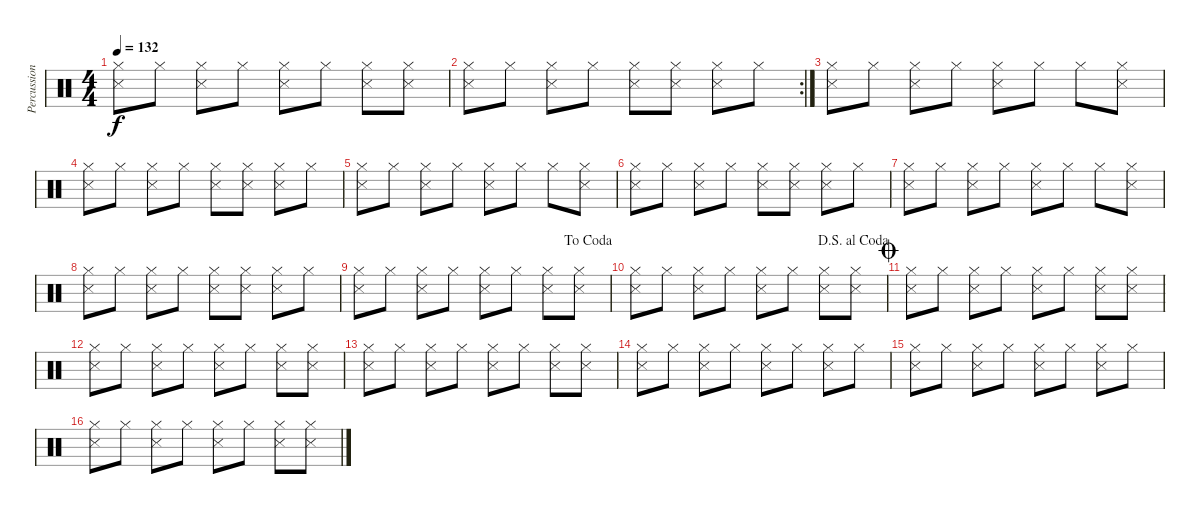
\track ("Percussion" "Percussion") {instrument percussion}
\staff {score}
\articulation defaults
\ts (4 4)
\tempo 132
\clef neutral
\ks c
("Hi-Hat (closed)" "Snare (side stick) 3").8{dy f} "Hi-Hat (closed)".8 ("Hi-Hat (closed)" "Snare (side stick) 3").8 "Hi-Hat (closed)".8 ("Hi-Hat (closed)" "Snare (side stick) 3").8 "Hi-Hat (closed)".8 ("Hi-Hat (closed)" "Snare (side stick) 3").8 ("Hi-Hat (closed)" "Snare (side stick) 3").8 |
\rc 2
("Hi-Hat (closed)" "Snare (side stick) 3").8 "Hi-Hat (closed)".8 ("Hi-Hat (closed)" "Snare (side stick) 3").8 "Hi-Hat (closed)".8 ("Hi-Hat (closed)" "Snare (side stick) 3").8 ("Hi-Hat (closed)" "Snare (side stick) 3").8 ("Hi-Hat (closed)" "Snare (side stick) 3").8 "Hi-Hat (closed)".8 |
("Hi-Hat (closed)" "Snare (side stick) 3").8 "Hi-Hat (closed)".8 ("Hi-Hat (closed)" "Snare (side stick) 3").8 "Hi-Hat (closed)".8 ("Hi-Hat (closed)" "Snare (side stick) 3").8 "Hi-Hat (closed)".8 "Hi-Hat (closed)".8 ("Hi-Hat (closed)" "Snare (side stick) 3").8 |
("Hi-Hat (closed)" "Snare (side stick) 3").8 "Hi-Hat (closed)".8 ("Hi-Hat (closed)" "Snare (side stick) 3").8 "Hi-Hat (closed)".8 ("Hi-Hat (closed)" "Snare (side stick) 3").8 ("Hi-Hat (closed)" "Snare (side stick) 3").8 ("Hi-Hat (closed)" "Snare (side stick) 3").8 "Hi-Hat (closed)".8 |
("Hi-Hat (closed)" "Snare (side stick) 3").8 "Hi-Hat (closed)".8 ("Hi-Hat (closed)" "Snare (side stick) 3").8 "Hi-Hat (closed)".8 ("Hi-Hat (closed)" "Snare (side stick) 3").8 "Hi-Hat (closed)".8 "Hi-Hat (closed)".8 ("Hi-Hat (closed)" "Snare (side stick) 3").8 |
("Hi-Hat (closed)" "Snare (side stick) 3").8 "Hi-Hat (closed)".8 ("Hi-Hat (closed)" "Snare (side stick) 3").8 "Hi-Hat (closed)".8 ("Hi-Hat (closed)" "Snare (side stick) 3").8 ("Hi-Hat (closed)" "Snare (side stick) 3").8 ("Hi-Hat (closed)" "Snare (side stick) 3").8 "Hi-Hat (closed)".8 |
("Hi-Hat (closed)" "Snare (side stick) 3").8 "Hi-Hat (closed)".8 ("Hi-Hat (closed)" "Snare (side stick) 3").8 "Hi-Hat (closed)".8 ("Hi-Hat (closed)" "Snare (side stick) 3").8 "Hi-Hat (closed)".8 "Hi-Hat (closed)".8 ("Hi-Hat (closed)" "Snare (side stick) 3").8 |
("Hi-Hat (closed)" "Snare (side stick) 3").8 "Hi-Hat (closed)".8 ("Hi-Hat (closed)" "Snare (side stick) 3").8 "Hi-Hat (closed)".8 ("Hi-Hat (closed)" "Snare (side stick) 3").8 ("Hi-Hat (closed)" "Snare (side stick) 3").8 ("Hi-Hat (closed)" "Snare (side stick) 3").8 "Hi-Hat (closed)".8 |
\jump dacoda
("Hi-Hat (closed)" "Snare (side stick) 3").8 "Hi-Hat (closed)".8 ("Hi-Hat (closed)" "Snare (side stick) 3").8 "Hi-Hat (closed)".8 ("Hi-Hat (closed)" "Snare (side stick) 3").8 "Hi-Hat (closed)".8 ("Hi-Hat (closed)" "Snare (side stick) 3").8 ("Hi-Hat (closed)" "Snare (side stick) 3").8 |
\jump dalsegnoalcoda
("Hi-Hat (closed)" "Snare (side stick) 3").8 "Hi-Hat (closed)".8 ("Hi-Hat (closed)" "Snare (side stick) 3").8 "Hi-Hat (closed)".8 ("Hi-Hat (closed)" "Snare (side stick) 3").8 "Hi-Hat (closed)".8 ("Hi-Hat (closed)" "Snare (side stick) 3").8 ("Hi-Hat (closed)" "Snare (side stick) 3").8 |
\jump coda
("Hi-Hat (closed)" "Snare (side stick) 3").8 "Hi-Hat (closed)".8 ("Hi-Hat (closed)" "Snare (side stick) 3").8 "Hi-Hat (closed)".8 ("Hi-Hat (closed)" "Snare (side stick) 3").8 "Hi-Hat (closed)".8 ("Hi-Hat (closed)" "Snare (side stick) 3").8 ("Hi-Hat (closed)" "Snare (side stick) 3").8 |
("Hi-Hat (closed)" "Snare (side stick) 3").8 "Hi-Hat (closed)".8 ("Hi-Hat (closed)" "Snare (side stick) 3").8 "Hi-Hat (closed)".8 ("Hi-Hat (closed)" "Snare (side stick) 3").8 "Hi-Hat (closed)".8 ("Hi-Hat (closed)" "Snare (side stick) 3").8 ("Hi-Hat (closed)" "Snare (side stick) 3").8 |
("Hi-Hat (closed)" "Snare (side stick) 3").8 "Hi-Hat (closed)".8 ("Hi-Hat (closed)" "Snare (side stick) 3").8 "Hi-Hat (closed)".8 ("Hi-Hat (closed)" "Snare (side stick) 3").8 "Hi-Hat (closed)".8 ("Hi-Hat (closed)" "Snare (side stick) 3").8 ("Hi-Hat (closed)" "Snare (side stick) 3").8 |
("Hi-Hat (closed)" "Snare (side stick) 3").8 "Hi-Hat (closed)".8 ("Hi-Hat (closed)" "Snare (side stick) 3").8 "Hi-Hat (closed)".8 ("Hi-Hat (closed)" "Snare (side stick) 3").8 "Hi-Hat (closed)".8 ("Hi-Hat (closed)" "Snare (side stick) 3").8 "Hi-Hat (closed)".8 |
("Hi-Hat (closed)" "Snare (side stick) 3").8 "Hi-Hat (closed)".8 ("Hi-Hat (closed)" "Snare (side stick) 3").8 "Hi-Hat (closed)".8 ("Hi-Hat (closed)" "Snare (side stick) 3").8 "Hi-Hat (closed)".8 ("Hi-Hat (closed)" "Snare (side stick) 3").8 "Hi-Hat (closed)".8 |
("Hi-Hat (closed)" "Snare (side stick) 3").8 "Hi-Hat (closed)".8 ("Hi-Hat (closed)" "Snare (side stick) 3").8 "Hi-Hat (closed)".8 ("Hi-Hat (closed)" "Snare (side stick) 3").8 "Hi-Hat (closed)".8 ("Hi-Hat (closed)" "Snare (side stick) 3").8 ("Hi-Hat (closed)" "Snare (side stick) 3").8
